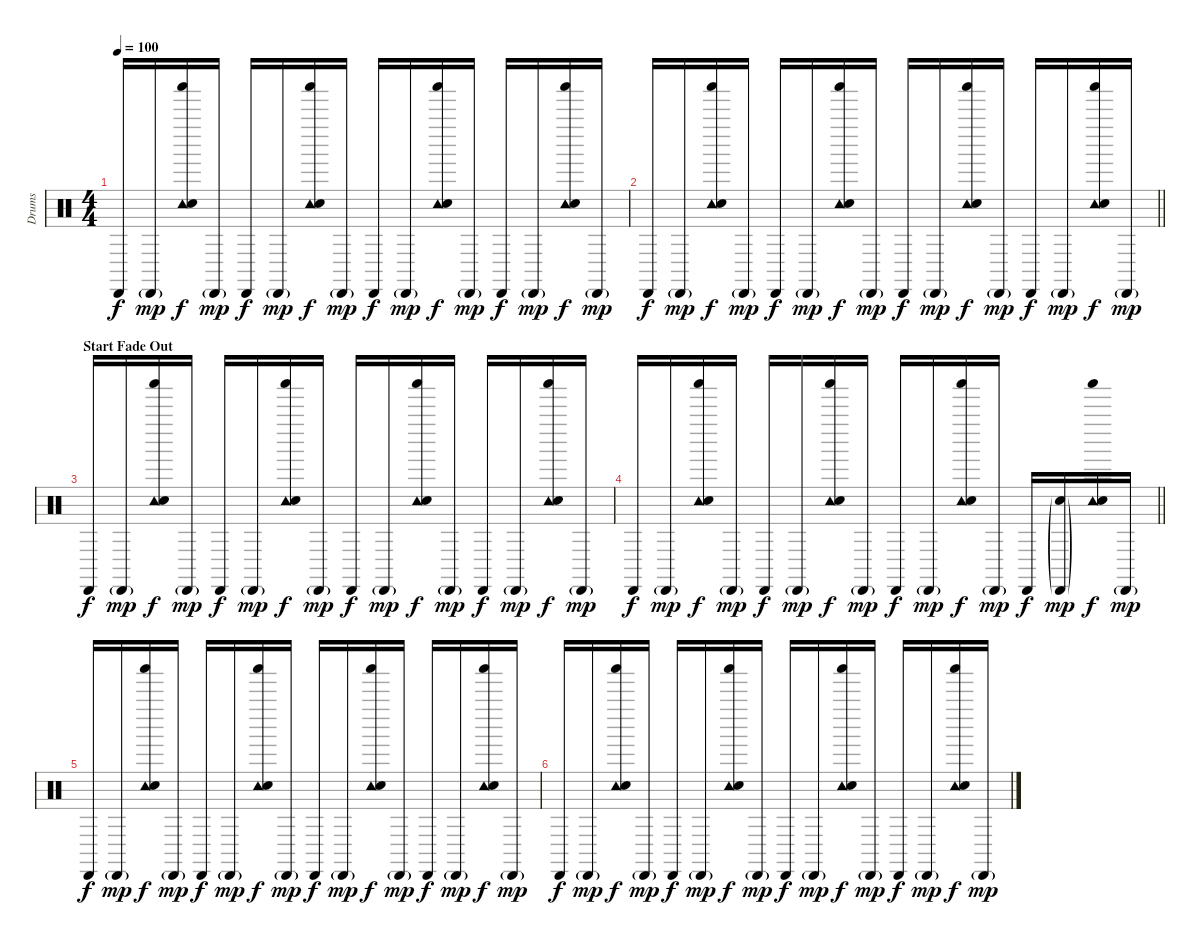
\track ("Drums" "Drums") {instrument percussion}
\staff {score}
\articulation defaults
\ts (4 4)
\tempo 100
\clef neutral
\ks c "Cabasa (hit)".16{dy f} "Cabasa (hit)"{g}.16{dy mp}
("Tambourine (hit)" "Shaker (hit)" "Electric Snare (hit)").16{dy f} "Cabasa (hit)"{g}.16{dy mp} "Cabasa (hit)".16{dy f} "Cabasa (hit)"{g}.16{dy mp} ("Tambourine (hit)" "Shaker (hit)" "Electric Snare (hit)").16{dy f} "Cabasa (hit)"{g}.16{dy mp} "Cabasa (hit)".16{dy f} "Cabasa (hit)"{g}.16{dy mp} ("Tambourine (hit)" "Shaker (hit)" "Electric Snare (hit)").16{dy f} "Cabasa (hit)"{g}.16{dy mp} "Cabasa (hit)".16{dy f} "Cabasa (hit)"{g}.16{dy mp} ("Tambourine (hit)" "Shaker (hit)" "Electric Snare (hit)").16{dy f} "Cabasa (hit)"{g}.16{dy mp} |
\barLineRight lightlight "Cabasa (hit)".16{dy f} "Cabasa (hit)"{g}.16{dy mp}
("Tambourine (hit)" "Shaker (hit)" "Electric Snare (hit)").16{dy f} "Cabasa (hit)"{g}.16{dy mp} "Cabasa (hit)".16{dy f} "Cabasa (hit)"{g}.16{dy mp} ("Tambourine (hit)" "Shaker (hit)" "Electric Snare (hit)").16{dy f} "Cabasa (hit)"{g}.16{dy mp} "Cabasa (hit)".16{dy f} "Cabasa (hit)"{g}.16{dy mp} ("Tambourine (hit)" "Shaker (hit)" "Electric Snare (hit)").16{dy f} "Cabasa (hit)"{g}.16{dy mp} "Cabasa (hit)".16{dy f} "Cabasa (hit)"{g}.16{dy mp} ("Tambourine (hit)" "Shaker (hit)" "Electric Snare (hit)").16{dy f} "Cabasa (hit)"{g}.16{dy mp} |
\section ("" "Start Fade Out")
"Cabasa (hit)".16{dy f} "Cabasa (hit)"{g}.16{dy mp} ("Tambourine (hit)" "Shaker (hit)" "Electric Snare (hit)").16{dy f} "Cabasa (hit)"{g}.16{dy mp} "Cabasa (hit)".16{dy f} "Cabasa (hit)"{g}.16{dy mp} ("Tambourine (hit)" "Shaker (hit)" "Electric Snare (hit)").16{dy f} "Cabasa (hit)"{g}.16{dy mp} "Cabasa (hit)".16{dy f} "Cabasa (hit)"{g}.16{dy mp} ("Tambourine (hit)" "Shaker (hit)" "Electric Snare (hit)").16{dy f} "Cabasa (hit)"{g}.16{dy mp} "Cabasa (hit)".16{dy f} "Cabasa (hit)"{g}.16{dy mp} ("Tambourine (hit)" "Shaker (hit)" "Electric Snare (hit)").16{dy f} "Cabasa (hit)"{g}.16{dy mp} |
\barLineRight lightlight "Cabasa (hit)".16{dy f} "Cabasa (hit)"{g}.16{dy mp}
("Tambourine (hit)" "Shaker (hit)" "Electric Snare (hit)").16{dy f} "Cabasa (hit)"{g}.16{dy mp} "Cabasa (hit)".16{dy f} "Cabasa (hit)"{g}.16{dy mp} ("Tambourine (hit)" "Shaker (hit)" "Electric Snare (hit)").16{dy f} "Cabasa (hit)"{g}.16{dy mp} "Cabasa (hit)".16{dy f} "Cabasa (hit)"{g}.16{dy mp} ("Tambourine (hit)" "Shaker (hit)" "Electric Snare (hit)").16{dy f} "Cabasa (hit)"{g}.16{dy mp} "Cabasa (hit)".16{dy f} ("Cabasa (hit)"{g} "Electric Snare (hit)"{g}).16{dy mp} ("Tambourine (hit)" "Shaker (hit)" "Electric Snare (hit)").16{dy f} "Cabasa (hit)"{g}.16{dy mp} |
"Cabasa (hit)".16{dy f} "Cabasa (hit)"{g}.16{dy mp} ("Tambourine (hit)" "Shaker (hit)" "Electric Snare (hit)").16{dy f} "Cabasa (hit)"{g}.16{dy mp} "Cabasa (hit)".16{dy f} "Cabasa (hit)"{g}.16{dy mp} ("Tambourine (hit)" "Shaker (hit)" "Electric Snare (hit)").16{dy f} "Cabasa (hit)"{g}.16{dy mp} "Cabasa (hit)".16{dy f} "Cabasa (hit)"{g}.16{dy mp} ("Tambourine (hit)" "Shaker (hit)" "Electric Snare (hit)").16{dy f} "Cabasa (hit)"{g}.16{dy mp} "Cabasa (hit)".16{dy f} "Cabasa (hit)"{g}.16{dy mp} ("Tambourine (hit)" "Shaker (hit)" "Electric Snare (hit)").16{dy f} "Cabasa (hit)"{g}.16{dy mp} |
"Cabasa (hit)".16{dy f} "Cabasa (hit)"{g}.16{dy mp} ("Tambourine (hit)" "Shaker (hit)" "Electric Snare (hit)").16{dy f} "Cabasa (hit)"{g}.16{dy mp} "Cabasa (hit)".16{dy f} "Cabasa (hit)"{g}.16{dy mp} ("Tambourine (hit)" "Shaker (hit)" "Electric Snare (hit)").16{dy f} "Cabasa (hit)"{g}.16{dy mp} "Cabasa (hit)".16{dy f} "Cabasa (hit)"{g}.16{dy mp} ("Tambourine (hit)" "Shaker (hit)" "Electric Snare (hit)").16{dy f} "Cabasa (hit)"{g}.16{dy mp} "Cabasa (hit)".16{dy f} "Cabasa (hit)"{g}.16{dy mp} ("Tambourine (hit)" "Shaker (hit)" "Electric Snare (hit)").16{dy f} "Cabasa (hit)"{g}.16{dy mp}
